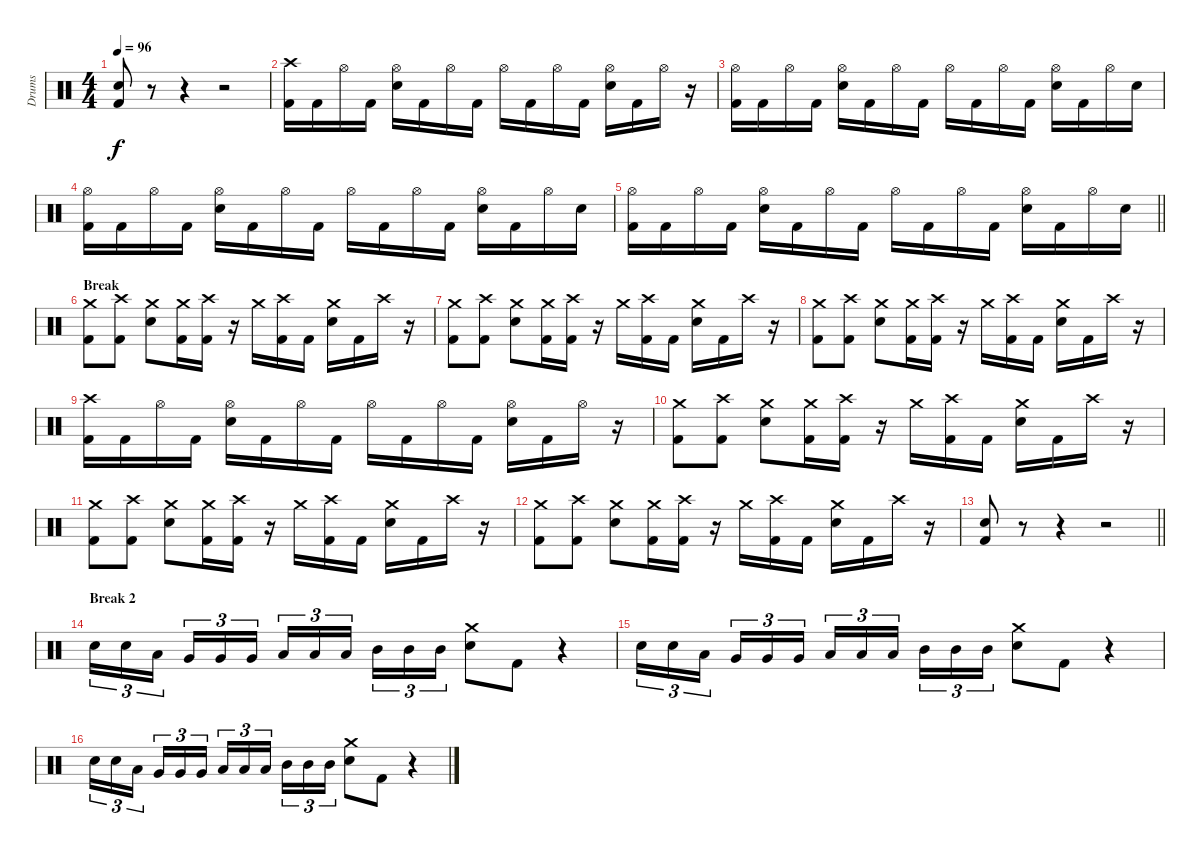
\track ("Drums" "Drums") {instrument percussion}
\staff {score}
\articulation defaults
\ts (4 4)
\tempo 96
\clef neutral
\ks c
("Electric Snare (hit)" "Kick (hit) 2").8{dy f} r.8 r.4 r.2 |
("Crash high (hit)" "Kick (hit) 2").16 "Kick (hit) 2".16 "Hi-Hat (open)".16 "Kick (hit) 2".16 ("Hi-Hat (open)" "Electric Snare (hit)").16 "Kick (hit) 2".16 "Hi-Hat (open)".16 "Kick (hit) 2".16 "Hi-Hat (open)".16 "Kick (hit) 2".16 "Hi-Hat (open)".16 "Kick (hit) 2".16 ("Hi-Hat (open)" "Electric Snare (hit)").16 "Kick (hit) 2".16 "Hi-Hat (open)".16 r.16 |
("Hi-Hat (open)" "Kick (hit) 2").16 "Kick (hit) 2".16 "Hi-Hat (open)".16 "Kick (hit) 2".16 ("Hi-Hat (open)" "Electric Snare (hit)").16 "Kick (hit) 2".16 "Hi-Hat (open)".16 "Kick (hit) 2".16 "Hi-Hat (open)".16 "Kick (hit) 2".16 "Hi-Hat (open)".16 "Kick (hit) 2".16 ("Hi-Hat (open)" "Electric Snare (hit)").16 "Kick (hit) 2".16 "Hi-Hat (open)".16 "Electric Snare (hit)".16 |
("Hi-Hat (open)" "Kick (hit) 2").16 "Kick (hit) 2".16 "Hi-Hat (open)".16 "Kick (hit) 2".16 ("Hi-Hat (open)" "Electric Snare (hit)").16 "Kick (hit) 2".16 "Hi-Hat (open)".16 "Kick (hit) 2".16 "Hi-Hat (open)".16 "Kick (hit) 2".16 "Hi-Hat (open)".16 "Kick (hit) 2".16 ("Hi-Hat (open)" "Electric Snare (hit)").16 "Kick (hit) 2".16 "Hi-Hat (open)".16 "Electric Snare (hit)".16 |
\barLineRight lightlight
("Hi-Hat (open)" "Kick (hit) 2").16 "Kick (hit) 2".16 "Hi-Hat (open)".16 "Kick (hit) 2".16 ("Hi-Hat (open)" "Electric Snare (hit)").16 "Kick (hit) 2".16 "Hi-Hat (open)".16 "Kick (hit) 2".16 "Hi-Hat (open)".16 "Kick (hit) 2".16 "Hi-Hat (open)".16 "Kick (hit) 2".16 ("Hi-Hat (open)" "Electric Snare (hit)").16 "Kick (hit) 2".16 "Hi-Hat (open)".16 "Electric Snare (hit)".16 |
\section ("" "Break")
("Kick (hit) 2" "Crash medium (hit)").8 ("Kick (hit) 2" "Crash high (hit)").8 ("Electric Snare (hit)" "Crash medium (hit)").8 ("Kick (hit) 2" "Crash medium (hit)").16 ("Kick (hit) 2" "Crash high (hit)").16 r.16 "Crash medium (hit)".16 ("Crash high (hit)" "Kick (hit) 2").16 "Kick (hit) 2".16 ("Crash medium (hit)" "Electric Snare (hit)").16 "Kick (hit) 2".16 "Crash high (hit)".16 r.16 |
("Kick (hit) 2" "Crash medium (hit)").8 ("Kick (hit) 2" "Crash high (hit)").8 ("Electric Snare (hit)" "Crash medium (hit)").8 ("Kick (hit) 2" "Crash medium (hit)").16 ("Kick (hit) 2" "Crash high (hit)").16 r.16 "Crash medium (hit)".16 ("Crash high (hit)" "Kick (hit) 2").16 "Kick (hit) 2".16 ("Crash medium (hit)" "Electric Snare (hit)").16 "Kick (hit) 2".16 "Crash high (hit)".16 r.16 |
("Kick (hit) 2" "Crash medium (hit)").8 ("Kick (hit) 2" "Crash high (hit)").8 ("Electric Snare (hit)" "Crash medium (hit)").8 ("Kick (hit) 2" "Crash medium (hit)").16 ("Kick (hit) 2" "Crash high (hit)").16 r.16 "Crash medium (hit)".16 ("Crash high (hit)" "Kick (hit) 2").16 "Kick (hit) 2".16 ("Crash medium (hit)" "Electric Snare (hit)").16 "Kick (hit) 2".16 "Crash high (hit)".16 r.16 |
("Crash high (hit)" "Kick (hit) 2").16 "Kick (hit) 2".16 "Hi-Hat (open)".16 "Kick (hit) 2".16 ("Hi-Hat (open)" "Electric Snare (hit)").16 "Kick (hit) 2".16 "Hi-Hat (open)".16 "Kick (hit) 2".16 "Hi-Hat (open)".16 "Kick (hit) 2".16 "Hi-Hat (open)".16 "Kick (hit) 2".16 ("Hi-Hat (open)" "Electric Snare (hit)").16 "Kick (hit) 2".16 "Hi-Hat (open)".16 r.16 |
("Kick (hit) 2" "Crash medium (hit)").8 ("Kick (hit) 2" "Crash high (hit)").8 ("Electric Snare (hit)" "Crash medium (hit)").8 ("Kick (hit) 2" "Crash medium (hit)").16 ("Kick (hit) 2" "Crash high (hit)").16 r.16 "Crash medium (hit)".16 ("Crash high (hit)" "Kick (hit) 2").16 "Kick (hit) 2".16 ("Crash medium (hit)" "Electric Snare (hit)").16 "Kick (hit) 2".16 "Crash high (hit)".16 r.16 |
("Kick (hit) 2" "Crash medium (hit)").8 ("Kick (hit) 2" "Crash high (hit)").8 ("Electric Snare (hit)" "Crash medium (hit)").8 ("Kick (hit) 2" "Crash medium (hit)").16 ("Kick (hit) 2" "Crash high (hit)").16 r.16 "Crash medium (hit)".16 ("Crash high (hit)" "Kick (hit) 2").16 "Kick (hit) 2".16 ("Crash medium (hit)" "Electric Snare (hit)").16 "Kick (hit) 2".16 "Crash high (hit)".16 r.16 |
("Kick (hit) 2" "Crash medium (hit)").8 ("Kick (hit) 2" "Crash high (hit)").8 ("Electric Snare (hit)" "Crash medium (hit)").8 ("Kick (hit) 2" "Crash medium (hit)").16 ("Kick (hit) 2" "Crash high (hit)").16 r.16 "Crash medium (hit)".16 ("Crash high (hit)" "Kick (hit) 2").16 "Kick (hit) 2".16 ("Crash medium (hit)" "Electric Snare (hit)").16 "Kick (hit) 2".16 "Crash high (hit)".16 r.16 |
\barLineRight lightlight
("Electric Snare (hit)" "Kick (hit) 2").8 r.8 r.4 r.2 |
\section ("" "Break 2")
"Electric Snare (hit)".16{tu (3 2)} "Electric Snare (hit)".16{tu (3 2)} "Low Floor Tom (hit)".16{tu (3 2)} "Very Low Tom (hit)".16{tu (3 2)} "Very Low Tom (hit)".16{tu (3 2)} "Very Low Tom (hit)".16{tu (3 2)} "Low Tom (hit)".16{tu (3 2)} "Low Tom (hit)".16{tu (3 2)} "Low Tom (hit)".16{tu (3 2)} "Mid Tom (hit)".16{tu (3 2)} "Mid Tom (hit)".16{tu (3 2)} "Mid Tom (hit)".16{tu (3 2)} ("Electric Snare (hit)" "Crash medium (hit)").8 "Kick (hit) 2".8 r.4 |
"Electric Snare (hit)".16{tu (3 2)} "Electric Snare (hit)".16{tu (3 2)} "Low Floor Tom (hit)".16{tu (3 2)} "Very Low Tom (hit)".16{tu (3 2)} "Very Low Tom (hit)".16{tu (3 2)} "Very Low Tom (hit)".16{tu (3 2)} "Low Tom (hit)".16{tu (3 2)} "Low Tom (hit)".16{tu (3 2)} "Low Tom (hit)".16{tu (3 2)} "Mid Tom (hit)".16{tu (3 2)} "Mid Tom (hit)".16{tu (3 2)} "Mid Tom (hit)".16{tu (3 2)} ("Electric Snare (hit)" "Crash medium (hit)").8 "Kick (hit) 2".8 r.4 |
"Electric Snare (hit)".16{tu (3 2)} "Electric Snare (hit)".16{tu (3 2)} "Low Floor Tom (hit)".16{tu (3 2)} "Very Low Tom (hit)".16{tu (3 2)} "Very Low Tom (hit)".16{tu (3 2)} "Very Low Tom (hit)".16{tu (3 2)} "Low Tom (hit)".16{tu (3 2)} "Low Tom (hit)".16{tu (3 2)} "Low Tom (hit)".16{tu (3 2)} "Mid Tom (hit)".16{tu (3 2)} "Mid Tom (hit)".16{tu (3 2)} "Mid Tom (hit)".16{tu (3 2)} ("Electric Snare (hit)" "Crash medium (hit)").8 "Kick (hit) 2".8 r.4
